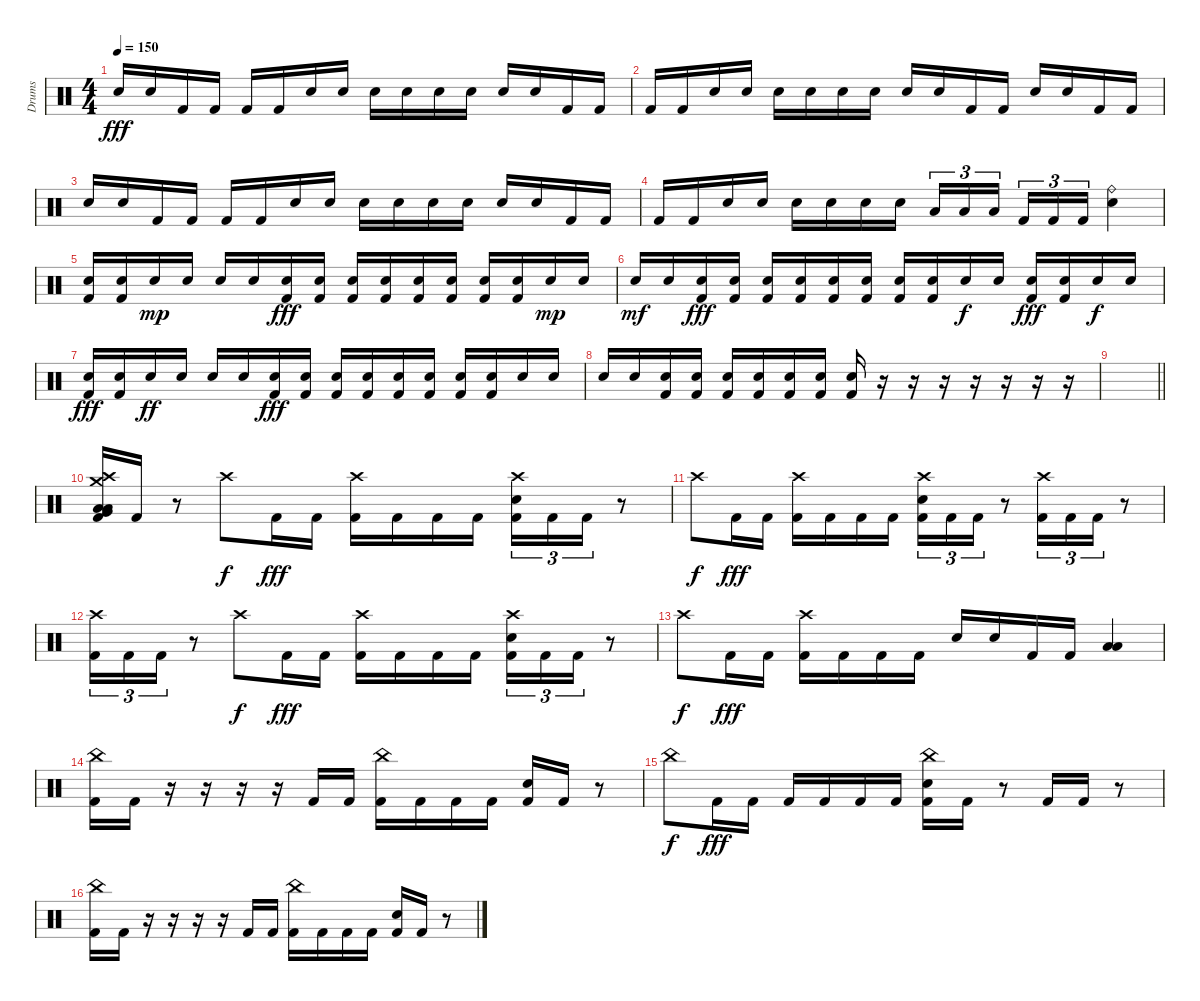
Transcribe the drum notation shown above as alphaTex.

\track ("Drums" "Drums") {instrument percussion}
\staff {score}
\articulation defaults
\ts (4 4)
\section ("" "")
\tempo 150
\clef neutral
\ks c "Electric Snare (hit)".16{dy fff} "Electric Snare (hit)".16 "Kick (hit) 2".16 "Kick (hit) 2".16 "Kick (hit) 2".16 "Kick (hit) 2".16 "Electric Snare (hit)".16 "Electric Snare (hit)".16 "Electric Snare (hit)".16 "Electric Snare (hit)".16 "Electric Snare (hit)".16 "Electric Snare (hit)".16 "Electric Snare (hit)".16 "Electric Snare (hit)".16 "Kick (hit) 2".16 "Kick (hit) 2".16
|
"Kick (hit) 2".16 "Kick (hit) 2".16 "Electric Snare (hit)".16 "Electric Snare (hit)".16 "Electric Snare (hit)".16 "Electric Snare (hit)".16 "Electric Snare (hit)".16 "Electric Snare (hit)".16 "Electric Snare (hit)".16 "Electric Snare (hit)".16 "Kick (hit) 2".16 "Kick (hit) 2".16 "Electric Snare (hit)".16 "Electric Snare (hit)".16 "Kick (hit) 2".16 "Kick (hit) 2".16 |
"Electric Snare (hit)".16 "Electric Snare (hit)".16 "Kick (hit) 2".16 "Kick (hit) 2".16 "Kick (hit) 2".16 "Kick (hit) 2".16 "Electric Snare (hit)".16 "Electric Snare (hit)".16 "Electric Snare (hit)".16 "Electric Snare (hit)".16 "Electric Snare (hit)".16 "Electric Snare (hit)".16 "Electric Snare (hit)".16 "Electric Snare (hit)".16 "Kick (hit) 2".16 "Kick (hit) 2".16 |
"Kick (hit) 2".16 "Kick (hit) 2".16 "Electric Snare (hit)".16 "Electric Snare (hit)".16 "Electric Snare (hit)".16 "Electric Snare (hit)".16 "Electric Snare (hit)".16 "Electric Snare (hit)".16 "Low Tom (hit)".16{tu (3 2)} "Low Tom (hit)".16{tu (3 2)} "Low Floor Tom (hit)".16{tu (3 2) beam splitsecondary} "Kick (hit) 2".16{tu (3 2)} "Kick (hit) 2".16{tu (3 2)} "Kick (hit) 2".16{tu (3 2)} ("Ride (bell)" "Electric Snare (hit)").4 |
("Electric Snare (hit)" "Kick (hit) 2").16 ("Electric Snare (hit)" "Kick (hit) 2").16 "Electric Snare (hit)".16{dy mp} "Electric Snare (hit)".16 "Electric Snare (hit)".16 "Electric Snare (hit)".16 ("Electric Snare (hit)" "Kick (hit) 2").16{dy fff} ("Electric Snare (hit)" "Kick (hit) 2").16 ("Electric Snare (hit)" "Kick (hit) 2").16 ("Electric Snare (hit)" "Kick (hit) 2").16 ("Electric Snare (hit)" "Kick (hit) 2").16 ("Electric Snare (hit)" "Kick (hit) 2").16 ("Electric Snare (hit)" "Kick (hit) 2").16 ("Electric Snare (hit)" "Kick (hit) 2").16 "Electric Snare (hit)".16{dy mp} "Electric Snare (hit)".16 |
"Electric Snare (hit)".16{dy mf} "Electric Snare (hit)".16 ("Electric Snare (hit)" "Kick (hit) 2").16{dy fff} ("Electric Snare (hit)" "Kick (hit) 2").16 ("Electric Snare (hit)" "Kick (hit) 2").16 ("Electric Snare (hit)" "Kick (hit) 2").16 ("Electric Snare (hit)" "Kick (hit) 2").16 ("Electric Snare (hit)" "Kick (hit) 2").16 ("Electric Snare (hit)" "Kick (hit) 2").16 ("Electric Snare (hit)" "Kick (hit) 2").16 "Electric Snare (hit)".16{dy f} "Electric Snare (hit)".16 ("Electric Snare (hit)" "Kick (hit) 2").16{dy fff} ("Electric Snare (hit)" "Kick (hit) 2").16 "Electric Snare (hit)".16{dy f} "Electric Snare (hit)".16 |
("Electric Snare (hit)" "Kick (hit) 2").16{dy fff} ("Electric Snare (hit)" "Kick (hit) 2").16 "Electric Snare (hit)".16{dy ff} "Electric Snare (hit)".16 "Electric Snare (hit)".16 "Electric Snare (hit)".16 ("Electric Snare (hit)" "Kick (hit) 2").16{dy fff} ("Electric Snare (hit)" "Kick (hit) 2").16 ("Electric Snare (hit)" "Kick (hit) 2").16 ("Electric Snare (hit)" "Kick (hit) 2").16 ("Electric Snare (hit)" "Kick (hit) 2").16 ("Electric Snare (hit)" "Kick (hit) 2").16 ("Electric Snare (hit)" "Kick (hit) 2").16 ("Electric Snare (hit)" "Kick (hit) 2").16 "Electric Snare (hit)".16 "Electric Snare (hit)".16 |
"Electric Snare (hit)".16 "Electric Snare (hit)".16 ("Electric Snare (hit)" "Kick (hit) 2").16 ("Electric Snare (hit)" "Kick (hit) 2").16 ("Electric Snare (hit)" "Kick (hit) 2").16 ("Electric Snare (hit)" "Kick (hit) 2").16 ("Electric Snare (hit)" "Kick (hit) 2").16 ("Electric Snare (hit)" "Kick (hit) 2").16 ("Electric Snare (hit)" "Kick (hit) 2").16 r.16 r.16 r.16 r.16 r.16 r.16 r.16 |
\barLineRight lightlight
|
\section ("" "")
("Crash high (hit)" "Crash medium (hit)" "Very Low Tom (hit)" "Low Floor Tom (hit)" "Low Tom (hit)" "Kick (hit) 2").16 "Kick (hit) 2".16 r.8 "Crash high (hit)".8{dy f} "Kick (hit) 2".16{dy fff} "Kick (hit) 2".16 ("Crash high (hit)" "Kick (hit) 2").16 "Kick (hit) 2".16 "Kick (hit) 2".16 "Kick (hit) 2".16 ("Crash high (hit)" "Electric Snare (hit)" "Kick (hit) 2").16{tu (3 2)} "Kick (hit) 2".16{tu (3 2)} "Kick (hit) 2".16{tu (3 2)} r.8 |
"Crash high (hit)".8{dy f} "Kick (hit) 2".16{dy fff} "Kick (hit) 2".16 ("Crash high (hit)" "Kick (hit) 2").16 "Kick (hit) 2".16 "Kick (hit) 2".16 "Kick (hit) 2".16 ("Crash high (hit)" "Electric Snare (hit)" "Kick (hit) 2").16{tu (3 2)} "Kick (hit) 2".16{tu (3 2)} "Kick (hit) 2".16{tu (3 2)} r.8 ("Crash high (hit)" "Kick (hit) 2").16{tu (3 2)} "Kick (hit) 2".16{tu (3 2)} "Kick (hit) 2".16{tu (3 2)} r.8 |
("Crash high (hit)" "Kick (hit) 2").16{tu (3 2)} "Kick (hit) 2".16{tu (3 2)} "Kick (hit) 2".16{tu (3 2)} r.8 "Crash high (hit)".8{dy f} "Kick (hit) 2".16{dy fff} "Kick (hit) 2".16 ("Crash high (hit)" "Kick (hit) 2").16 "Kick (hit) 2".16 "Kick (hit) 2".16 "Kick (hit) 2".16 ("Crash high (hit)" "Electric Snare (hit)" "Kick (hit) 2").16{tu (3 2)} "Kick (hit) 2".16{tu (3 2)} "Kick (hit) 2".16{tu (3 2)} r.8 |
"Crash high (hit)".8{dy f} "Kick (hit) 2".16{dy fff} "Kick (hit) 2".16 ("Crash high (hit)" "Kick (hit) 2").16 "Kick (hit) 2".16 "Kick (hit) 2".16 "Kick (hit) 2".16 "Electric Snare (hit)".16 "Electric Snare (hit)".16 "Kick (hit) 2".16 "Kick (hit) 2".16 ("Low Tom (hit)" "Low Floor Tom (hit)").4 |
("China (hit)" "Kick (hit) 2").16 "Kick (hit) 2".16 r.16 r.16 r.16 r.16 "Kick (hit) 2".16 "Kick (hit) 2".16 ("China (hit)" "Kick (hit) 2").16 "Kick (hit) 2".16 "Kick (hit) 2".16 "Kick (hit) 2".16 ("Electric Snare (hit)" "Kick (hit) 2").16 "Kick (hit) 2".16 r.8 |
"China (hit)".8{dy f} "Kick (hit) 2".16{dy fff} "Kick (hit) 2".16 "Kick (hit) 2".16 "Kick (hit) 2".16 "Kick (hit) 2".16 "Kick (hit) 2".16 ("China (hit)" "Electric Snare (hit)" "Kick (hit) 2").16 "Kick (hit) 2".16 r.8 "Kick (hit) 2".16 "Kick (hit) 2".16 r.8 |
("China (hit)" "Kick (hit) 2").16 "Kick (hit) 2".16 r.16 r.16 r.16 r.16 "Kick (hit) 2".16 "Kick (hit) 2".16 ("China (hit)" "Kick (hit) 2").16 "Kick (hit) 2".16 "Kick (hit) 2".16 "Kick (hit) 2".16 ("Electric Snare (hit)" "Kick (hit) 2").16 "Kick (hit) 2".16 r.8
